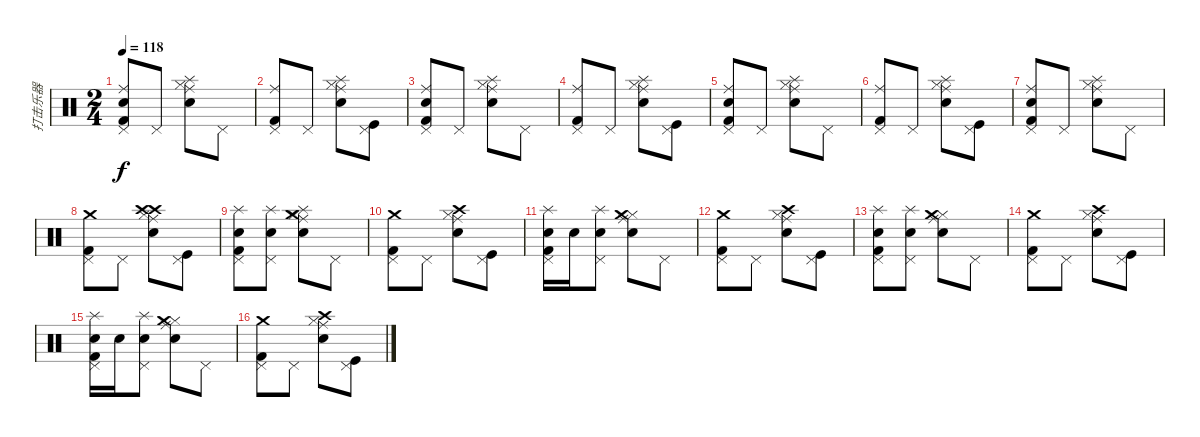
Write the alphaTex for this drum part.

\track ("打击乐器" "打击乐器") {instrument percussion}
\staff {score}
\articulation defaults
\ts (2 4)
\tempo 118
\clef neutral
\ks c
("Snare (hit) 2" "Pedal Hi-Hat (hit)" "Ride (middle)" "Kick (hit) 2").8{dy f} "Pedal Hi-Hat (hit)".8 ("Ride (middle)" "Hi-Hat (closed)" "Splash (hit)" "Snare (hit) 2").8 "Pedal Hi-Hat (hit)".8 |
("Pedal Hi-Hat (hit)" "Ride (middle)" "Kick (hit) 2").8 "Pedal Hi-Hat (hit)".8 ("Ride (middle)" "Hi-Hat (closed)" "Splash (hit)" "Snare (hit) 2").8 ("Pedal Hi-Hat (hit)" "Kick (hit)").8 |
("Snare (hit) 2" "Pedal Hi-Hat (hit)" "Ride (middle)" "Kick (hit) 2").8 "Pedal Hi-Hat (hit)".8 ("Ride (middle)" "Hi-Hat (closed)" "Splash (hit)" "Snare (hit) 2").8 "Pedal Hi-Hat (hit)".8 |
("Pedal Hi-Hat (hit)" "Ride (middle)" "Kick (hit) 2").8 "Pedal Hi-Hat (hit)".8 ("Ride (middle)" "Hi-Hat (closed)" "Splash (hit)" "Snare (hit) 2").8 ("Pedal Hi-Hat (hit)" "Kick (hit)").8 |
("Snare (hit) 2" "Pedal Hi-Hat (hit)" "Ride (middle)" "Kick (hit) 2").8 "Pedal Hi-Hat (hit)".8 ("Ride (middle)" "Hi-Hat (closed)" "Splash (hit)" "Snare (hit) 2").8 "Pedal Hi-Hat (hit)".8 |
("Pedal Hi-Hat (hit)" "Ride (middle)" "Kick (hit) 2").8 "Pedal Hi-Hat (hit)".8 ("Ride (middle)" "Hi-Hat (closed)" "Splash (hit)" "Snare (hit) 2").8 ("Pedal Hi-Hat (hit)" "Kick (hit)").8 |
("Snare (hit) 2" "Pedal Hi-Hat (hit)" "Ride (middle)" "Kick (hit) 2").8 "Pedal Hi-Hat (hit)".8 ("Ride (middle)" "Hi-Hat (closed)" "Splash (hit)" "Snare (hit) 2").8 "Pedal Hi-Hat (hit)".8 |
("Pedal Hi-Hat (hit)" "Crash medium (hit)" "Kick (hit) 2").8 "Pedal Hi-Hat (hit)".8 ("Crash high (hit)" "Ride (middle)" "Hi-Hat (closed)" "Crash high (hit)" "Snare (hit) 2").8 ("Pedal Hi-Hat (hit)" "Kick (hit)").8 |
("Snare (hit) 2" "Pedal Hi-Hat (hit)" "Splash (hit)" "Kick (hit) 2").8 ("Snare (hit) 2" "Pedal Hi-Hat (hit)" "Splash (hit)").8 ("Splash (hit)" "Ride (middle)" "Hi-Hat (closed)" "Crash medium (hit)" "Snare (hit) 2").8 "Pedal Hi-Hat (hit)".8 |
("Pedal Hi-Hat (hit)" "Crash medium (hit)" "Kick (hit) 2").8 "Pedal Hi-Hat (hit)".8 ("Ride (middle)" "Hi-Hat (closed)" "Crash high (hit)" "Snare (hit) 2").8 ("Pedal Hi-Hat (hit)" "Kick (hit)").8 |
("Snare (hit) 2" "Pedal Hi-Hat (hit)" "Splash (hit)" "Kick (hit) 2").16 "Snare (hit) 2".16 ("Snare (hit) 2" "Pedal Hi-Hat (hit)" "Splash (hit)").8 ("Ride (middle)" "Hi-Hat (closed)" "Crash medium (hit)" "Snare (hit) 2").8 "Pedal Hi-Hat (hit)".8 |
("Pedal Hi-Hat (hit)" "Crash medium (hit)" "Kick (hit) 2").8 "Pedal Hi-Hat (hit)".8 ("Ride (middle)" "Hi-Hat (closed)" "Crash high (hit)" "Snare (hit) 2").8 ("Pedal Hi-Hat (hit)" "Kick (hit)").8 |
("Snare (hit) 2" "Pedal Hi-Hat (hit)" "Splash (hit)" "Kick (hit) 2").8 ("Snare (hit) 2" "Pedal Hi-Hat (hit)" "Splash (hit)").8 ("Ride (middle)" "Hi-Hat (closed)" "Crash medium (hit)" "Snare (hit) 2").8 "Pedal Hi-Hat (hit)".8 |
("Pedal Hi-Hat (hit)" "Crash medium (hit)" "Kick (hit) 2").8 "Pedal Hi-Hat (hit)".8 ("Ride (middle)" "Hi-Hat (closed)" "Crash high (hit)" "Snare (hit) 2").8 ("Pedal Hi-Hat (hit)" "Kick (hit)").8 |
("Snare (hit) 2" "Pedal Hi-Hat (hit)" "Splash (hit)" "Kick (hit) 2").16 "Snare (hit) 2".16 ("Snare (hit) 2" "Pedal Hi-Hat (hit)" "Splash (hit)").8 ("Ride (middle)" "Hi-Hat (closed)" "Crash medium (hit)" "Snare (hit) 2").8 "Pedal Hi-Hat (hit)".8 |
("Pedal Hi-Hat (hit)" "Crash medium (hit)" "Kick (hit) 2").8 "Pedal Hi-Hat (hit)".8 ("Ride (middle)" "Hi-Hat (closed)" "Crash high (hit)" "Snare (hit) 2").8 ("Pedal Hi-Hat (hit)" "Kick (hit)").8
